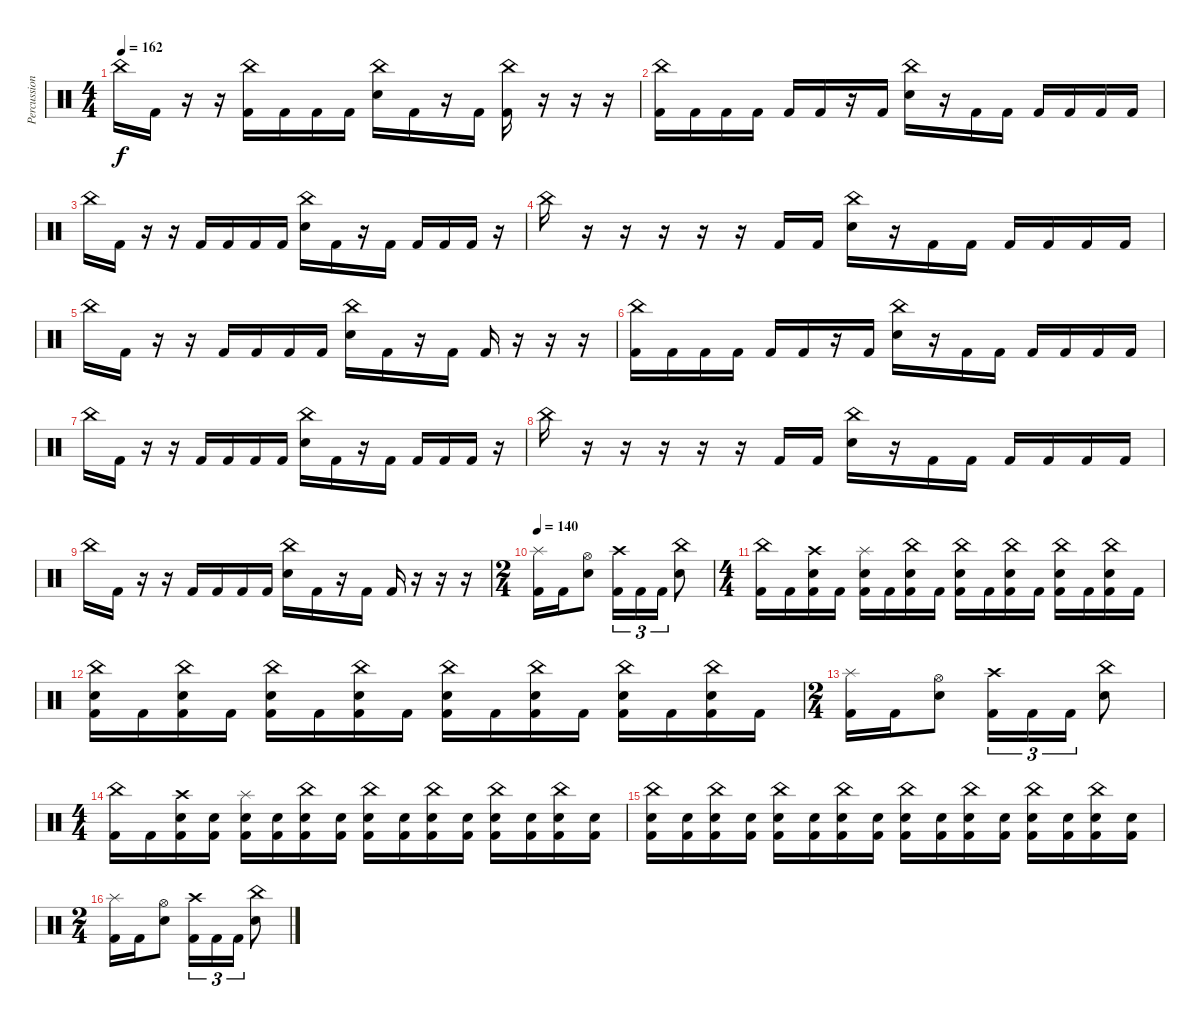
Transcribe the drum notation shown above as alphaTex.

\track ("Percussion" "Percussion") {instrument percussion}
\staff {score}
\articulation defaults
\ts (4 4)
\tempo 162
\clef neutral
\ks c "China (hit)".16{dy f} "Kick (hit) 2".16
r.16 r.16 ("China (hit)" "Kick (hit) 2").16 "Kick (hit) 2".16 "Kick (hit) 2".16 "Kick (hit) 2".16 ("China (hit)" "Snare (hit) 2").16 "Kick (hit) 2".16 r.16 "Kick (hit) 2".16 ("China (hit)" "Kick (hit) 2").16 r.16 r.16 r.16 |
("China (hit)" "Kick (hit) 2").16 "Kick (hit) 2".16 "Kick (hit) 2".16 "Kick (hit) 2".16 "Kick (hit) 2".16 "Kick (hit) 2".16 r.16 "Kick (hit) 2".16 ("China (hit)" "Snare (hit) 2").16 r.16 "Kick (hit) 2".16 "Kick (hit) 2".16 "Kick (hit) 2".16 "Kick (hit) 2".16 "Kick (hit) 2".16 "Kick (hit) 2".16 |
"China (hit)".16 "Kick (hit) 2".16 r.16 r.16 "Kick (hit) 2".16 "Kick (hit) 2".16 "Kick (hit) 2".16 "Kick (hit) 2".16 ("China (hit)" "Snare (hit) 2").16 "Kick (hit) 2".16 r.16 "Kick (hit) 2".16 "Kick (hit) 2".16 "Kick (hit) 2".16 "Kick (hit) 2".16 r.16 |
"China (hit)".16 r.16 r.16 r.16 r.16 r.16 "Kick (hit) 2".16 "Kick (hit) 2".16 ("China (hit)" "Snare (hit) 2").16 r.16 "Kick (hit) 2".16 "Kick (hit) 2".16 "Kick (hit) 2".16 "Kick (hit) 2".16 "Kick (hit) 2".16 "Kick (hit) 2".16 |
"China (hit)".16 "Kick (hit) 2".16 r.16 r.16 "Kick (hit) 2".16 "Kick (hit) 2".16 "Kick (hit) 2".16 "Kick (hit) 2".16 ("China (hit)" "Snare (hit) 2").16 "Kick (hit) 2".16 r.16 "Kick (hit) 2".16 "Kick (hit) 2".16 r.16 r.16 r.16 |
("China (hit)" "Kick (hit) 2").16 "Kick (hit) 2".16 "Kick (hit) 2".16 "Kick (hit) 2".16 "Kick (hit) 2".16 "Kick (hit) 2".16 r.16 "Kick (hit) 2".16 ("China (hit)" "Snare (hit) 2").16 r.16 "Kick (hit) 2".16 "Kick (hit) 2".16 "Kick (hit) 2".16 "Kick (hit) 2".16 "Kick (hit) 2".16 "Kick (hit) 2".16 |
"China (hit)".16 "Kick (hit) 2".16 r.16 r.16 "Kick (hit) 2".16 "Kick (hit) 2".16 "Kick (hit) 2".16 "Kick (hit) 2".16 ("China (hit)" "Snare (hit) 2").16 "Kick (hit) 2".16 r.16 "Kick (hit) 2".16 "Kick (hit) 2".16 "Kick (hit) 2".16 "Kick (hit) 2".16 r.16 |
"China (hit)".16 r.16 r.16 r.16 r.16 r.16 "Kick (hit) 2".16 "Kick (hit) 2".16 ("China (hit)" "Snare (hit) 2").16 r.16 "Kick (hit) 2".16 "Kick (hit) 2".16 "Kick (hit) 2".16 "Kick (hit) 2".16 "Kick (hit) 2".16 "Kick (hit) 2".16 |
"China (hit)".16 "Kick (hit) 2".16 r.16 r.16 "Kick (hit) 2".16 "Kick (hit) 2".16 "Kick (hit) 2".16 "Kick (hit) 2".16 ("China (hit)" "Snare (hit) 2").16 "Kick (hit) 2".16 r.16 "Kick (hit) 2".16 "Kick (hit) 2".16 r.16 r.16 r.16 |
\ts (2 4)
\tempo 140
("Splash (hit)" "Kick (hit) 2").16 "Kick (hit) 2".16 ("Hi-Hat (open)" "Snare (hit) 2").8 ("Crash high (hit)" "Kick (hit) 2").16{tu (3 2)} "Kick (hit) 2".16{tu (3 2)} "Kick (hit) 2".16{tu (3 2)} ("China (hit)" "Snare (hit) 2").8 |
\ts (4 4)
("China (hit)" "Kick (hit) 2").16 "Kick (hit) 2".16 ("Crash high (hit)" "Snare (hit) 2" "Kick (hit) 2").16 "Kick (hit) 2".16 ("Splash (hit)" "Snare (hit) 2" "Kick (hit) 2").16 "Kick (hit) 2".16 ("China (hit)" "Snare (hit) 2" "Kick (hit) 2").16 "Kick (hit) 2".16 ("China (hit)" "Snare (hit) 2" "Kick (hit) 2").16 "Kick (hit) 2".16 ("China (hit)" "Snare (hit) 2" "Kick (hit) 2").16 "Kick (hit) 2".16 ("China (hit)" "Snare (hit) 2" "Kick (hit) 2").16 "Kick (hit) 2".16 ("China (hit)" "Snare (hit) 2" "Kick (hit) 2").16 "Kick (hit) 2".16 |
("China (hit)" "Snare (hit) 2" "Kick (hit) 2").16 "Kick (hit) 2".16 ("China (hit)" "Snare (hit) 2" "Kick (hit) 2").16 "Kick (hit) 2".16 ("China (hit)" "Snare (hit) 2" "Kick (hit) 2").16 "Kick (hit) 2".16 ("China (hit)" "Snare (hit) 2" "Kick (hit) 2").16 "Kick (hit) 2".16 ("China (hit)" "Snare (hit) 2" "Kick (hit) 2").16 "Kick (hit) 2".16 ("China (hit)" "Snare (hit) 2" "Kick (hit) 2").16 "Kick (hit) 2".16 ("China (hit)" "Snare (hit) 2" "Kick (hit) 2").16 "Kick (hit) 2".16 ("China (hit)" "Snare (hit) 2" "Kick (hit) 2").16 "Kick (hit) 2".16 |
\ts (2 4)
("Splash (hit)" "Kick (hit) 2").16 "Kick (hit) 2".16 ("Hi-Hat (open)" "Snare (hit) 2").8 ("Crash high (hit)" "Kick (hit) 2").16{tu (3 2)} "Kick (hit) 2".16{tu (3 2)} "Kick (hit) 2".16{tu (3 2)} ("China (hit)" "Snare (hit) 2").8 |
\ts (4 4)
("China (hit)" "Kick (hit) 2").16 "Kick (hit) 2".16 ("Crash high (hit)" "Snare (hit) 2" "Kick (hit) 2").16 ("Snare (hit) 2" "Kick (hit) 2").16 ("Splash (hit)" "Snare (hit) 2" "Kick (hit) 2").16 ("Snare (hit) 2" "Kick (hit) 2").16 ("China (hit)" "Snare (hit) 2" "Kick (hit) 2").16 ("Snare (hit) 2" "Kick (hit) 2").16 ("China (hit)" "Snare (hit) 2" "Kick (hit) 2").16 ("Snare (hit) 2" "Kick (hit) 2").16 ("China (hit)" "Snare (hit) 2" "Kick (hit) 2").16 ("Snare (hit) 2" "Kick (hit) 2").16 ("China (hit)" "Snare (hit) 2" "Kick (hit) 2").16 ("Snare (hit) 2" "Kick (hit) 2").16 ("China (hit)" "Snare (hit) 2" "Kick (hit) 2").16 ("Snare (hit) 2" "Kick (hit) 2").16 |
("China (hit)" "Snare (hit) 2" "Kick (hit) 2").16 ("Snare (hit) 2" "Kick (hit) 2").16 ("China (hit)" "Snare (hit) 2" "Kick (hit) 2").16 ("Snare (hit) 2" "Kick (hit) 2").16 ("China (hit)" "Snare (hit) 2" "Kick (hit) 2").16 ("Snare (hit) 2" "Kick (hit) 2").16 ("China (hit)" "Snare (hit) 2" "Kick (hit) 2").16 ("Snare (hit) 2" "Kick (hit) 2").16 ("China (hit)" "Snare (hit) 2" "Kick (hit) 2").16 ("Snare (hit) 2" "Kick (hit) 2").16 ("China (hit)" "Snare (hit) 2" "Kick (hit) 2").16 ("Snare (hit) 2" "Kick (hit) 2").16 ("China (hit)" "Snare (hit) 2" "Kick (hit) 2").16 ("Snare (hit) 2" "Kick (hit) 2").16 ("China (hit)" "Snare (hit) 2" "Kick (hit) 2").16 ("Snare (hit) 2" "Kick (hit) 2").16 |
\ts (2 4)
("Splash (hit)" "Kick (hit) 2").16 "Kick (hit) 2".16 ("Hi-Hat (open)" "Snare (hit) 2").8 ("Crash high (hit)" "Kick (hit) 2").16{tu (3 2)} "Kick (hit) 2".16{tu (3 2)} "Kick (hit) 2".16{tu (3 2)} ("China (hit)" "Snare (hit) 2").8
